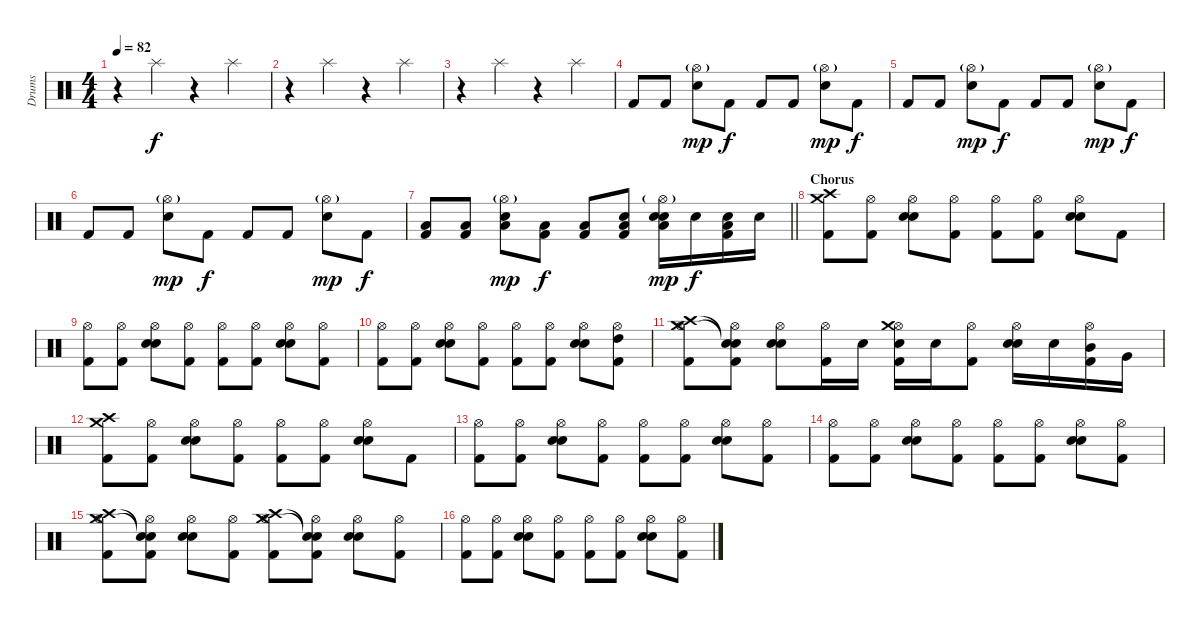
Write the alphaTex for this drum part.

\track ("Drums" "Drums") {instrument percussion}
\staff {score}
\articulation defaults
\ts (4 4)
\tempo 82
\clef neutral
\ks c
r.4{dy f} "Splash (hit)".4 r.4 "Splash (hit)".4 |
r.4 "Splash (hit)".4 r.4 "Splash (hit)".4 |
r.4 "Splash (hit)".4 r.4 "Splash (hit)".4 |
"Kick (hit) 2".8 "Kick (hit) 2".8 ("Hi-Hat (open)"{g} "Electric Snare (hit)").8{dy mp} "Kick (hit) 2".8{dy f} "Kick (hit) 2".8 "Kick (hit) 2".8 ("Hi-Hat (open)"{g} "Electric Snare (hit)").8{dy mp} "Kick (hit) 2".8{dy f} |
"Kick (hit) 2".8 "Kick (hit) 2".8 ("Hi-Hat (open)"{g} "Electric Snare (hit)").8{dy mp} "Kick (hit) 2".8{dy f} "Kick (hit) 2".8 "Kick (hit) 2".8 ("Hi-Hat (open)"{g} "Electric Snare (hit)").8{dy mp} "Kick (hit) 2".8{dy f} |
"Kick (hit) 2".8 "Kick (hit) 2".8 ("Hi-Hat (open)"{g} "Electric Snare (hit)").8{dy mp} "Kick (hit) 2".8{dy f} "Kick (hit) 2".8 "Kick (hit) 2".8 ("Hi-Hat (open)"{g} "Electric Snare (hit)").8{dy mp} "Kick (hit) 2".8{dy f} |
\barLineRight lightlight
("Kick (hit) 2" "Low Floor Tom (hit)").8 ("Kick (hit) 2" "Low Floor Tom (hit)").8 ("Hi-Hat (open)"{g} "Electric Snare (hit)" "Low Floor Tom (hit)").8{dy mp} ("Kick (hit) 2" "Low Floor Tom (hit)").8{dy f} ("Kick (hit) 2" "Low Floor Tom (hit)").8 ("Kick (hit) 2" "Low Floor Tom (hit)" "Snare (hit) 2").8 ("Hi-Hat (open)"{g} "Electric Snare (hit)" "Low Floor Tom (hit)" "Snare (hit) 2").16{dy mp} "Snare (hit) 2".16{dy f} ("Kick (hit) 2" "Low Floor Tom (hit)" "Snare (hit) 2").16 "Snare (hit) 2".16 |
\section ("" "Chorus")
("Crash medium (hit)" "Crash high (hit)" "Kick (hit) 2").8 ("Hi-Hat (open)" "Kick (hit) 2").8 ("Hi-Hat (open)" "Snare (hit) 2" "Electric Snare (hit)").8 ("Hi-Hat (open)" "Kick (hit) 2").8 ("Hi-Hat (open)" "Kick (hit) 2").8 ("Hi-Hat (open)" "Kick (hit) 2").8 ("Hi-Hat (open)" "Snare (hit) 2" "Electric Snare (hit)").8 "Kick (hit) 2".8 |
("Hi-Hat (open)" "Kick (hit) 2").8 ("Hi-Hat (open)" "Kick (hit) 2").8 ("Hi-Hat (open)" "Snare (hit) 2" "Electric Snare (hit)").8 ("Hi-Hat (open)" "Kick (hit) 2").8 ("Hi-Hat (open)" "Kick (hit) 2").8 ("Hi-Hat (open)" "Kick (hit) 2").8 ("Hi-Hat (open)" "Snare (hit) 2" "Electric Snare (hit)").8 ("Hi-Hat (open)" "Kick (hit) 2").8 |
("Hi-Hat (open)" "Kick (hit) 2").8 ("Hi-Hat (open)" "Kick (hit) 2").8 ("Hi-Hat (open)" "Snare (hit) 2" "Electric Snare (hit)").8 ("Hi-Hat (open)" "Kick (hit) 2").8 ("Hi-Hat (open)" "Kick (hit) 2").8 ("Hi-Hat (open)" "Kick (hit) 2").8 ("Hi-Hat (open)" "Snare (hit) 2" "Electric Snare (hit)").8 ("Hi-Hat (open)" "High Tom (hit)" "Kick (hit) 2").8 |
("Hi-Hat (open)" "Crash medium (hit)" "Crash high (hit)" "Kick (hit) 2").8 ("Hi-Hat (open)" "Snare (hit)"{t} "Snare (hit)"{t} "Kick (hit) 2").8 ("Hi-Hat (open)" "Snare (hit) 2" "Electric Snare (hit)").8 ("Hi-Hat (open)" "Kick (hit) 2").16 "Snare (hit) 2".16 ("Hi-Hat (open)" "Snare (hit) 2" "Crash medium (hit)" "Kick (hit) 2").16 "Snare (hit) 2".16 ("Hi-Hat (open)" "Kick (hit) 2").8 ("Hi-Hat (open)" "Snare (hit) 2" "Electric Snare (hit)").16 "Snare (hit) 2".16 ("Hi-Hat (open)" "Kick (hit) 2" "Mid Tom (hit)").16 "Very Low Tom (hit)".16 |
("Crash medium (hit)" "Crash high (hit)" "Kick (hit) 2").8 ("Hi-Hat (open)" "Kick (hit) 2").8 ("Hi-Hat (open)" "Snare (hit) 2" "Electric Snare (hit)").8 ("Hi-Hat (open)" "Kick (hit) 2").8 ("Hi-Hat (open)" "Kick (hit) 2").8 ("Hi-Hat (open)" "Kick (hit) 2").8 ("Hi-Hat (open)" "Snare (hit) 2" "Electric Snare (hit)").8 "Kick (hit) 2".8 |
("Hi-Hat (open)" "Kick (hit) 2").8 ("Hi-Hat (open)" "Kick (hit) 2").8 ("Hi-Hat (open)" "Snare (hit) 2" "Electric Snare (hit)").8 ("Hi-Hat (open)" "Kick (hit) 2").8 ("Hi-Hat (open)" "Kick (hit) 2").8 ("Hi-Hat (open)" "Kick (hit) 2").8 ("Hi-Hat (open)" "Snare (hit) 2" "Electric Snare (hit)").8 ("Hi-Hat (open)" "Kick (hit) 2").8 |
("Hi-Hat (open)" "Kick (hit) 2").8 ("Hi-Hat (open)" "Kick (hit) 2").8 ("Hi-Hat (open)" "Snare (hit) 2" "Electric Snare (hit)").8 ("Hi-Hat (open)" "Kick (hit) 2").8 ("Hi-Hat (open)" "Kick (hit) 2").8 ("Hi-Hat (open)" "Kick (hit) 2").8 ("Hi-Hat (open)" "Snare (hit) 2" "Electric Snare (hit)").8 ("Hi-Hat (open)" "Kick (hit) 2").8 |
("Hi-Hat (open)" "Crash medium (hit)" "Crash high (hit)" "Kick (hit) 2").8 ("Hi-Hat (open)" "Snare (hit)"{t} "Snare (hit)"{t} "Kick (hit) 2").8 ("Hi-Hat (open)" "Snare (hit) 2" "Electric Snare (hit)").8 ("Hi-Hat (open)" "Kick (hit) 2").8 ("Hi-Hat (open)" "Crash medium (hit)" "Crash high (hit)" "Kick (hit) 2").8 ("Hi-Hat (open)" "Snare (hit)"{t} "Snare (hit)"{t} "Kick (hit) 2").8 ("Hi-Hat (open)" "Snare (hit) 2" "Electric Snare (hit)").8 ("Hi-Hat (open)" "Kick (hit) 2").8 |
("Hi-Hat (open)" "Kick (hit) 2").8 ("Hi-Hat (open)" "Kick (hit) 2").8 ("Hi-Hat (open)" "Snare (hit) 2" "Electric Snare (hit)").8 ("Hi-Hat (open)" "Kick (hit) 2").8 ("Hi-Hat (open)" "Kick (hit) 2").8 ("Hi-Hat (open)" "Kick (hit) 2").8 ("Hi-Hat (open)" "Snare (hit) 2" "Electric Snare (hit)").8 ("Hi-Hat (open)" "Kick (hit) 2").8
